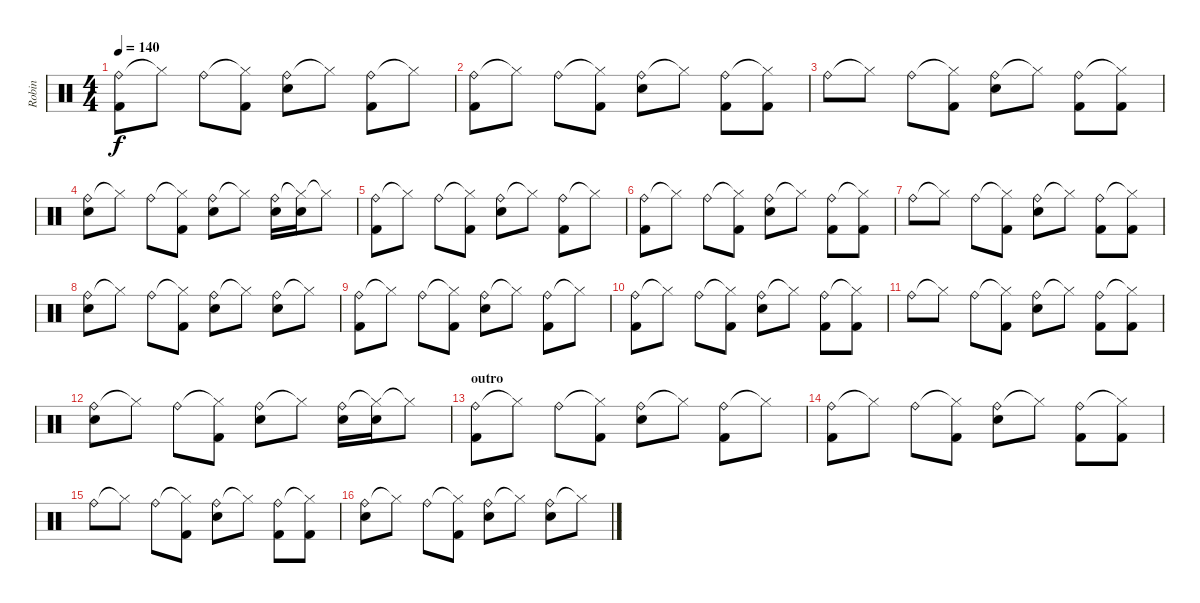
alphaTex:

\track ("Robin" "Robin") {instrument percussion}
\staff {score}
\articulation defaults
\ts (4 4)
\tempo 140
\clef neutral
\ks c
("Ride (bell)" "Kick (hit) 2").8{dy f} "Hi-Hat (closed)"{t}.8 "Ride (bell)".8 ("Hi-Hat (closed)"{t} "Kick (hit) 2").8 ("Ride (bell)" "Snare (hit) 2").8 "Hi-Hat (closed)"{t}.8 ("Ride (bell)" "Kick (hit) 2").8 "Hi-Hat (closed)"{t}.8 |
("Ride (bell)" "Kick (hit) 2").8 "Hi-Hat (closed)"{t}.8 "Ride (bell)".8 ("Hi-Hat (closed)"{t} "Kick (hit) 2").8 ("Ride (bell)" "Snare (hit) 2").8 "Hi-Hat (closed)"{t}.8 ("Ride (bell)" "Kick (hit) 2").8 ("Hi-Hat (closed)"{t} "Kick (hit) 2").8 |
"Ride (bell)".8 "Hi-Hat (closed)"{t}.8 "Ride (bell)".8 ("Hi-Hat (closed)"{t} "Kick (hit) 2").8 ("Ride (bell)" "Snare (hit) 2").8 "Hi-Hat (closed)"{t}.8 ("Ride (bell)" "Kick (hit) 2").8 ("Hi-Hat (closed)"{t} "Kick (hit) 2").8 |
("Ride (bell)" "Snare (hit) 2").8 "Hi-Hat (closed)"{t}.8 "Ride (bell)".8 ("Hi-Hat (closed)"{t} "Kick (hit) 2").8 ("Ride (bell)" "Snare (hit) 2").8 "Hi-Hat (closed)"{t}.8 ("Ride (bell)" "Snare (hit) 2").16 ("Hi-Hat (closed)"{t} "Snare (hit) 2").16 "Hi-Hat (closed)"{t}.8 |
("Ride (bell)" "Kick (hit) 2").8 "Hi-Hat (closed)"{t}.8 "Ride (bell)".8 ("Hi-Hat (closed)"{t} "Kick (hit) 2").8 ("Ride (bell)" "Snare (hit) 2").8 "Hi-Hat (closed)"{t}.8 ("Ride (bell)" "Kick (hit) 2").8 "Hi-Hat (closed)"{t}.8 |
("Ride (bell)" "Kick (hit) 2").8 "Hi-Hat (closed)"{t}.8 "Ride (bell)".8 ("Hi-Hat (closed)"{t} "Kick (hit) 2").8 ("Ride (bell)" "Snare (hit) 2").8 "Hi-Hat (closed)"{t}.8 ("Ride (bell)" "Kick (hit) 2").8 ("Hi-Hat (closed)"{t} "Kick (hit) 2").8 |
"Ride (bell)".8 "Hi-Hat (closed)"{t}.8 "Ride (bell)".8 ("Hi-Hat (closed)"{t} "Kick (hit) 2").8 ("Ride (bell)" "Snare (hit) 2").8 "Hi-Hat (closed)"{t}.8 ("Ride (bell)" "Kick (hit) 2").8 ("Hi-Hat (closed)"{t} "Kick (hit) 2").8 |
("Ride (bell)" "Snare (hit) 2").8 "Hi-Hat (closed)"{t}.8 "Ride (bell)".8 ("Hi-Hat (closed)"{t} "Kick (hit) 2").8 ("Ride (bell)" "Snare (hit) 2").8 "Hi-Hat (closed)"{t}.8 ("Ride (bell)" "Snare (hit) 2").8 "Hi-Hat (closed)"{t}.8 |
("Ride (bell)" "Kick (hit) 2").8 "Hi-Hat (closed)"{t}.8 "Ride (bell)".8 ("Hi-Hat (closed)"{t} "Kick (hit) 2").8 ("Ride (bell)" "Snare (hit) 2").8 "Hi-Hat (closed)"{t}.8 ("Ride (bell)" "Kick (hit) 2").8 "Hi-Hat (closed)"{t}.8 |
("Ride (bell)" "Kick (hit) 2").8 "Hi-Hat (closed)"{t}.8 "Ride (bell)".8 ("Hi-Hat (closed)"{t} "Kick (hit) 2").8 ("Ride (bell)" "Snare (hit) 2").8 "Hi-Hat (closed)"{t}.8 ("Ride (bell)" "Kick (hit) 2").8 ("Hi-Hat (closed)"{t} "Kick (hit) 2").8 |
"Ride (bell)".8 "Hi-Hat (closed)"{t}.8 "Ride (bell)".8 ("Hi-Hat (closed)"{t} "Kick (hit) 2").8 ("Ride (bell)" "Snare (hit) 2").8 "Hi-Hat (closed)"{t}.8 ("Ride (bell)" "Kick (hit) 2").8 ("Hi-Hat (closed)"{t} "Kick (hit) 2").8 |
("Ride (bell)" "Snare (hit) 2").8 "Hi-Hat (closed)"{t}.8 "Ride (bell)".8 ("Hi-Hat (closed)"{t} "Kick (hit) 2").8 ("Ride (bell)" "Snare (hit) 2").8 "Hi-Hat (closed)"{t}.8 ("Ride (bell)" "Snare (hit) 2").16 ("Hi-Hat (closed)"{t} "Snare (hit) 2").16 "Hi-Hat (closed)"{t}.8 |
\section ("" "outro")
("Ride (bell)" "Kick (hit) 2").8 "Hi-Hat (closed)"{t}.8 "Ride (bell)".8 ("Hi-Hat (closed)"{t} "Kick (hit) 2").8 ("Ride (bell)" "Snare (hit) 2").8 "Hi-Hat (closed)"{t}.8 ("Ride (bell)" "Kick (hit) 2").8 "Hi-Hat (closed)"{t}.8 |
("Ride (bell)" "Kick (hit) 2").8 "Hi-Hat (closed)"{t}.8 "Ride (bell)".8 ("Hi-Hat (closed)"{t} "Kick (hit) 2").8 ("Ride (bell)" "Snare (hit) 2").8 "Hi-Hat (closed)"{t}.8 ("Ride (bell)" "Kick (hit) 2").8 ("Hi-Hat (closed)"{t} "Kick (hit) 2").8 |
"Ride (bell)".8 "Hi-Hat (closed)"{t}.8 "Ride (bell)".8 ("Hi-Hat (closed)"{t} "Kick (hit) 2").8 ("Ride (bell)" "Snare (hit) 2").8 "Hi-Hat (closed)"{t}.8 ("Ride (bell)" "Kick (hit) 2").8 ("Hi-Hat (closed)"{t} "Kick (hit) 2").8 |
("Ride (bell)" "Snare (hit) 2").8 "Hi-Hat (closed)"{t}.8 "Ride (bell)".8 ("Hi-Hat (closed)"{t} "Kick (hit) 2").8 ("Ride (bell)" "Snare (hit) 2").8 "Hi-Hat (closed)"{t}.8 ("Ride (bell)" "Snare (hit) 2").8 "Hi-Hat (closed)"{t}.8
